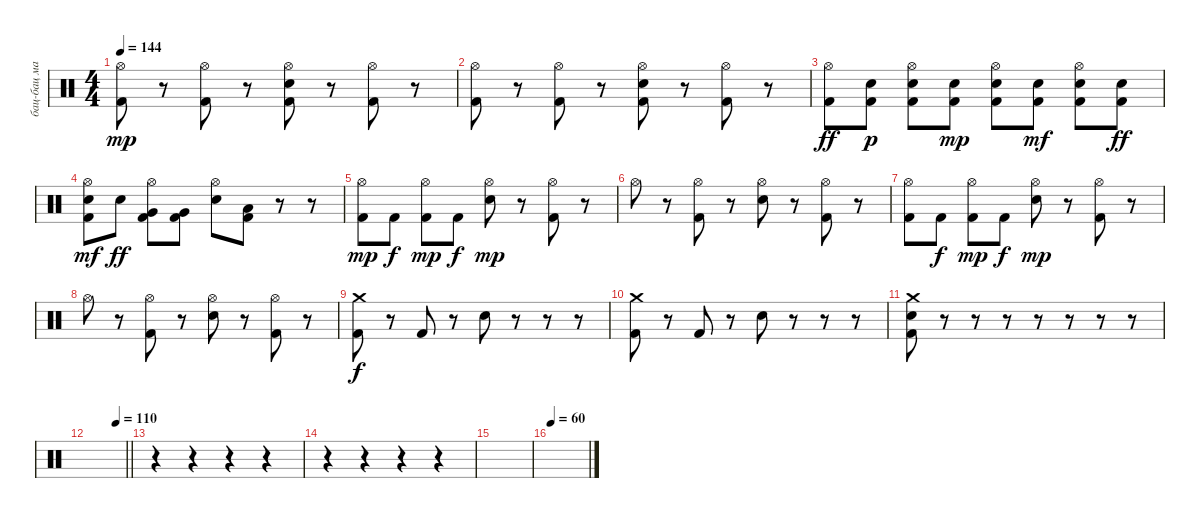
\track ("бац-бац машина" "бац-бац ма") {instrument percussion}
\staff {score}
\articulation defaults
\ts (4 4)
\tempo 144
\clef neutral
\ks c
("Hi-Hat (open)" "Kick (hit) 2").8{dy mp} r.8 ("Hi-Hat (open)" "Kick (hit) 2").8 r.8 ("Hi-Hat (open)" "Snare (hit) 2" "Kick (hit) 2").8 r.8 ("Hi-Hat (open)" "Kick (hit) 2").8 r.8 |
("Hi-Hat (open)" "Kick (hit) 2").8 r.8 ("Hi-Hat (open)" "Kick (hit) 2").8 r.8 ("Hi-Hat (open)" "Snare (hit) 2" "Kick (hit) 2").8 r.8 ("Hi-Hat (open)" "Kick (hit) 2").8 r.8 |
("Hi-Hat (open)" "Kick (hit) 2").8{dy ff} ("Electric Snare (hit)" "Kick (hit) 2").8{dy p} ("Hi-Hat (open)" "Electric Snare (hit)" "Kick (hit) 2").8 ("Electric Snare (hit)" "Kick (hit) 2").8{dy mp} ("Hi-Hat (open)" "Electric Snare (hit)" "Kick (hit) 2").8 ("Electric Snare (hit)" "Kick (hit) 2").8{dy mf} ("Hi-Hat (open)" "Electric Snare (hit)" "Kick (hit) 2").8 ("Electric Snare (hit)" "Kick (hit) 2").8{dy ff} |
("Hi-Hat (open)" "Electric Snare (hit)" "Kick (hit) 2").8{dy mf} "Snare (hit) 2".8{dy ff} ("Hi-Hat (open)" "Very Low Tom (hit)" "Kick (hit) 2").8 ("Very Low Tom (hit)" "Kick (hit) 2").8 ("Hi-Hat (open)" "Snare (hit) 2").8 ("Low Tom (hit)" "Kick (hit) 2").8 r.8 r.8 |
("Hi-Hat (open)" "Kick (hit) 2").8{dy mp} "Kick (hit) 2".8{dy f} ("Hi-Hat (open)" "Kick (hit) 2").8{dy mp} "Kick (hit) 2".8{dy f} ("Hi-Hat (open)" "Snare (hit) 2").8{dy mp} r.8 ("Hi-Hat (open)" "Kick (hit) 2").8 r.8 |
"Hi-Hat (open)".8 r.8 ("Hi-Hat (open)" "Kick (hit) 2").8 r.8 ("Hi-Hat (open)" "Snare (hit) 2").8 r.8 ("Hi-Hat (open)" "Kick (hit) 2").8 r.8 |
("Hi-Hat (open)" "Kick (hit) 2").8 "Kick (hit) 2".8{dy f} ("Hi-Hat (open)" "Kick (hit) 2").8{dy mp} "Kick (hit) 2".8{dy f} ("Hi-Hat (open)" "Snare (hit) 2").8{dy mp} r.8 ("Hi-Hat (open)" "Kick (hit) 2").8 r.8 |
"Hi-Hat (open)".8 r.8 ("Hi-Hat (open)" "Kick (hit) 2").8 r.8 ("Hi-Hat (open)" "Snare (hit) 2").8 r.8 ("Hi-Hat (open)" "Kick (hit) 2").8 r.8 |
("Crash medium (hit)" "Kick (hit) 2").8{dy f} r.8 "Kick (hit) 2".8 r.8 "Snare (hit) 2".8 r.8 r.8 r.8 |
("Crash medium (hit)" "Kick (hit) 2").8 r.8 "Kick (hit) 2".8 r.8 "Snare (hit) 2".8 r.8 r.8 r.8 |
("Crash medium (hit)" "Snare (hit) 2" "Kick (hit) 2").8 r.8 r.8 r.8 r.8 r.8 r.8 r.8 |
\tempo (110 0.75)
\barLineRight lightlight
|
r.4 r.4 r.4 r.4 |
r.4 r.4 r.4 r.4 |
|
\tempo 60
